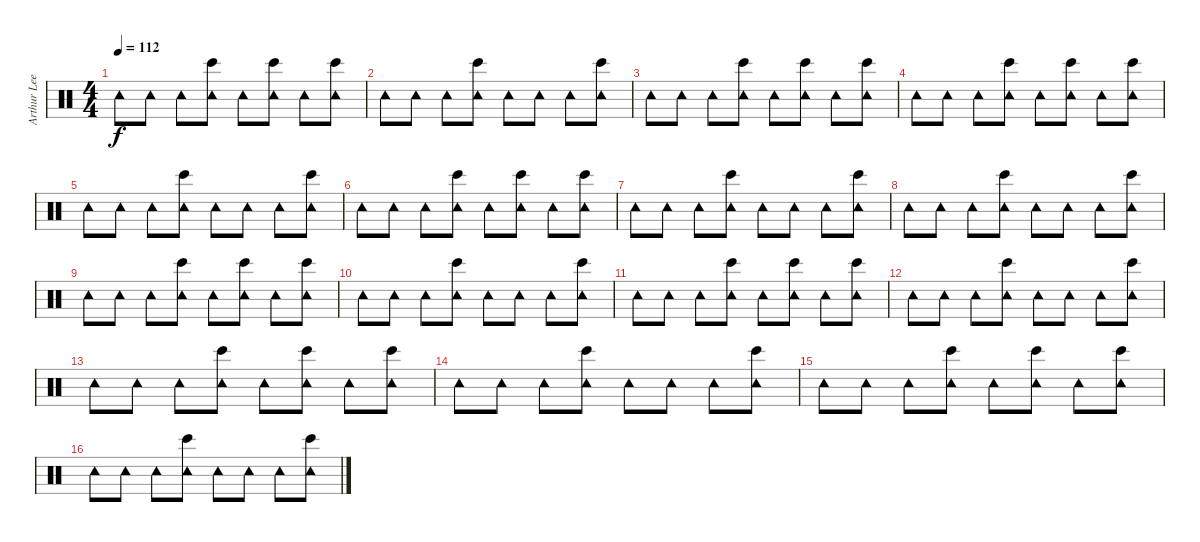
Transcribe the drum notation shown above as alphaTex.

\track ("Arthur Lee (percussion)" "Arthur Lee") {instrument percussion}
\staff {score}
\articulation defaults
\ts (4 4)
\tempo 112
\clef neutral
\ks c "Tambourine (hit)".8{dy f} "Tambourine (hit)".8 "Tambourine (hit)".8
("Tambourine (hit)" "Bongo High (hit)").8 "Tambourine (hit)".8 ("Tambourine (hit)" "Bongo High (hit)").8 "Tambourine (hit)".8 ("Tambourine (hit)" "Bongo High (hit)").8 |
"Tambourine (hit)".8 "Tambourine (hit)".8 "Tambourine (hit)".8 ("Tambourine (hit)" "Bongo High (hit)").8 "Tambourine (hit)".8 "Tambourine (hit)".8 "Tambourine (hit)".8 ("Tambourine (hit)" "Bongo High (hit)").8 |
"Tambourine (hit)".8 "Tambourine (hit)".8 "Tambourine (hit)".8 ("Tambourine (hit)" "Bongo High (hit)").8 "Tambourine (hit)".8 ("Tambourine (hit)" "Bongo High (hit)").8 "Tambourine (hit)".8 ("Tambourine (hit)" "Bongo High (hit)").8 |
"Tambourine (hit)".8 "Tambourine (hit)".8 "Tambourine (hit)".8 ("Tambourine (hit)" "Bongo High (hit)").8 "Tambourine (hit)".8 ("Tambourine (hit)" "Bongo High (hit)").8 "Tambourine (hit)".8 ("Tambourine (hit)" "Bongo High (hit)").8 |
"Tambourine (hit)".8 "Tambourine (hit)".8 "Tambourine (hit)".8 ("Tambourine (hit)" "Bongo High (hit)").8 "Tambourine (hit)".8 "Tambourine (hit)".8 "Tambourine (hit)".8 ("Tambourine (hit)" "Bongo High (hit)").8 |
"Tambourine (hit)".8 "Tambourine (hit)".8 "Tambourine (hit)".8 ("Tambourine (hit)" "Bongo High (hit)").8 "Tambourine (hit)".8 ("Tambourine (hit)" "Bongo High (hit)").8 "Tambourine (hit)".8 ("Tambourine (hit)" "Bongo High (hit)").8 |
"Tambourine (hit)".8 "Tambourine (hit)".8 "Tambourine (hit)".8 ("Tambourine (hit)" "Bongo High (hit)").8 "Tambourine (hit)".8 "Tambourine (hit)".8 "Tambourine (hit)".8 ("Tambourine (hit)" "Bongo High (hit)").8 |
"Tambourine (hit)".8 "Tambourine (hit)".8 "Tambourine (hit)".8 ("Tambourine (hit)" "Bongo High (hit)").8 "Tambourine (hit)".8 "Tambourine (hit)".8 "Tambourine (hit)".8 ("Tambourine (hit)" "Bongo High (hit)").8 |
"Tambourine (hit)".8 "Tambourine (hit)".8 "Tambourine (hit)".8 ("Tambourine (hit)" "Bongo High (hit)").8 "Tambourine (hit)".8 ("Tambourine (hit)" "Bongo High (hit)").8 "Tambourine (hit)".8 ("Tambourine (hit)" "Bongo High (hit)").8 |
"Tambourine (hit)".8 "Tambourine (hit)".8 "Tambourine (hit)".8 ("Tambourine (hit)" "Bongo High (hit)").8 "Tambourine (hit)".8 "Tambourine (hit)".8 "Tambourine (hit)".8 ("Tambourine (hit)" "Bongo High (hit)").8 |
"Tambourine (hit)".8 "Tambourine (hit)".8 "Tambourine (hit)".8 ("Tambourine (hit)" "Bongo High (hit)").8 "Tambourine (hit)".8 ("Tambourine (hit)" "Bongo High (hit)").8 "Tambourine (hit)".8 ("Tambourine (hit)" "Bongo High (hit)").8 |
"Tambourine (hit)".8 "Tambourine (hit)".8 "Tambourine (hit)".8 ("Tambourine (hit)" "Bongo High (hit)").8 "Tambourine (hit)".8 "Tambourine (hit)".8 "Tambourine (hit)".8 ("Tambourine (hit)" "Bongo High (hit)").8 |
"Tambourine (hit)".8 "Tambourine (hit)".8 "Tambourine (hit)".8 ("Tambourine (hit)" "Bongo High (hit)").8 "Tambourine (hit)".8 ("Tambourine (hit)" "Bongo High (hit)").8 "Tambourine (hit)".8 ("Tambourine (hit)" "Bongo High (hit)").8 |
"Tambourine (hit)".8 "Tambourine (hit)".8 "Tambourine (hit)".8 ("Tambourine (hit)" "Bongo High (hit)").8 "Tambourine (hit)".8 "Tambourine (hit)".8 "Tambourine (hit)".8 ("Tambourine (hit)" "Bongo High (hit)").8 |
"Tambourine (hit)".8 "Tambourine (hit)".8 "Tambourine (hit)".8 ("Tambourine (hit)" "Bongo High (hit)").8 "Tambourine (hit)".8 ("Tambourine (hit)" "Bongo High (hit)").8 "Tambourine (hit)".8 ("Tambourine (hit)" "Bongo High (hit)").8 |
"Tambourine (hit)".8 "Tambourine (hit)".8 "Tambourine (hit)".8 ("Tambourine (hit)" "Bongo High (hit)").8 "Tambourine (hit)".8 "Tambourine (hit)".8 "Tambourine (hit)".8 ("Tambourine (hit)" "Bongo High (hit)").8
